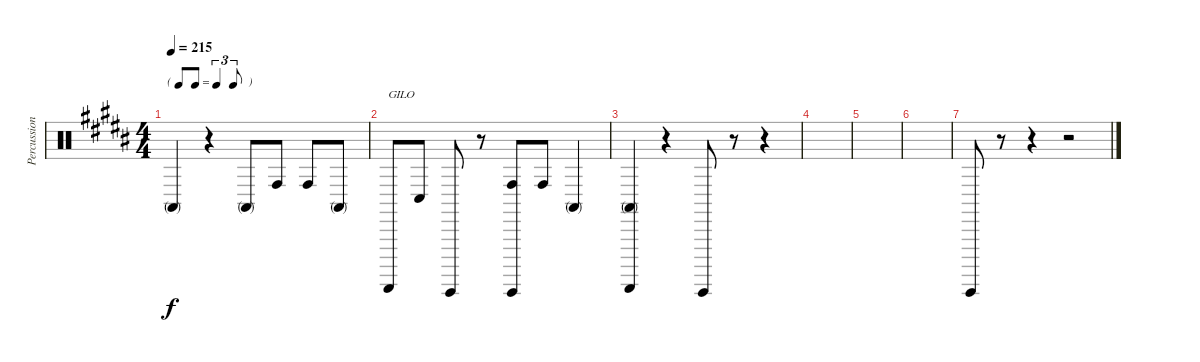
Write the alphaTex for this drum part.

\track ("Percussion A (Tainaka Ritsu)" "Percussion") {instrument percussion}
\staff {score}
\articulation defaults
\ts (4 4)
\tf triplet8th
\tempo 215
\clef neutral
\ks b "Conga high (mute)".4{dy f}
r.4 "Conga high (mute)".8 "Conga high (hit)".8 "Conga high (hit)".8 "Conga high (mute)".8 |
"Guiro (scrap-return)".8{txt "GILO"} "Conga low (hit)".8 "Guiro (hit)".8 r.8 ("Guiro (hit)" "Conga high (hit)").8 "Conga high (hit)".8 "Conga high (mute)".4 |
("Guiro (scrap-return)" "Conga high (mute)").4 r.4 "Guiro (hit)".8 r.8 r.4 |
|
|
|
"Guiro (hit)".8 r.8 r.4 r.2
